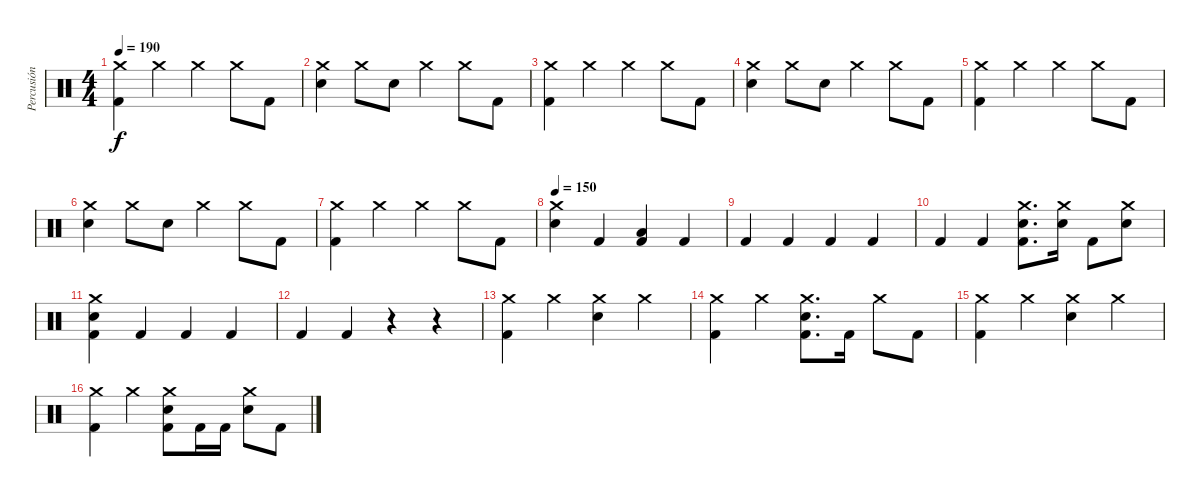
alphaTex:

\track ("Percusión" "Percusión") {instrument percussion}
\staff {score}
\articulation defaults
\ts (4 4)
\tempo 190
\clef neutral
\ks c
("Crash medium (hit)" "Kick (hit) 2").4{dy f} "Crash medium (hit)".4 "Crash medium (hit)".4 "Crash medium (hit)".8 "Kick (hit) 2".8 |
("Crash medium (hit)" "Electric Snare (hit)").4 "Crash medium (hit)".8 "Electric Snare (hit)".8 "Crash medium (hit)".4 "Crash medium (hit)".8 "Kick (hit) 2".8 |
("Crash medium (hit)" "Kick (hit) 2").4 "Crash medium (hit)".4 "Crash medium (hit)".4 "Crash medium (hit)".8 "Kick (hit) 2".8 |
("Crash medium (hit)" "Electric Snare (hit)").4 "Crash medium (hit)".8 "Electric Snare (hit)".8 "Crash medium (hit)".4 "Crash medium (hit)".8 "Kick (hit) 2".8 |
("Crash medium (hit)" "Kick (hit) 2").4 "Crash medium (hit)".4 "Crash medium (hit)".4 "Crash medium (hit)".8 "Kick (hit) 2".8 |
("Crash medium (hit)" "Electric Snare (hit)").4 "Crash medium (hit)".8 "Electric Snare (hit)".8 "Crash medium (hit)".4 "Crash medium (hit)".8 "Kick (hit) 2".8 |
("Crash medium (hit)" "Kick (hit) 2").4 "Crash medium (hit)".4 "Crash medium (hit)".4 "Crash medium (hit)".8 "Kick (hit) 2".8 |
\tempo 150
("Crash medium (hit)" "Electric Snare (hit)").4 "Kick (hit) 2".4 ("Low Floor Tom (hit)" "Kick (hit) 2").4 "Kick (hit) 2".4 |
"Kick (hit) 2".4 "Kick (hit) 2".4 "Kick (hit) 2".4 "Kick (hit) 2".4 |
"Kick (hit) 2".4 "Kick (hit) 2".4 ("Crash medium (hit)" "Electric Snare (hit)" "Kick (hit) 2").8{d} ("Crash medium (hit)" "Electric Snare (hit)").16 "Kick (hit) 2".8 ("Crash medium (hit)" "Electric Snare (hit)").8 |
("Crash medium (hit)" "Electric Snare (hit)" "Kick (hit) 2").4 "Kick (hit) 2".4 "Kick (hit) 2".4 "Kick (hit) 2".4 |
"Kick (hit) 2".4 "Kick (hit) 2".4 r.4 r.4 |
("Crash medium (hit)" "Kick (hit) 2").4 "Crash medium (hit)".4 ("Crash medium (hit)" "Electric Snare (hit)").4 "Crash medium (hit)".4 |
("Crash medium (hit)" "Kick (hit) 2").4 "Crash medium (hit)".4 ("Crash medium (hit)" "Electric Snare (hit)" "Kick (hit) 2").8{d} "Kick (hit) 2".16 "Crash medium (hit)".8 "Kick (hit) 2".8 |
("Crash medium (hit)" "Kick (hit) 2").4 "Crash medium (hit)".4 ("Crash medium (hit)" "Electric Snare (hit)").4 "Crash medium (hit)".4 |
("Crash medium (hit)" "Kick (hit) 2").4 "Crash medium (hit)".4 ("Crash medium (hit)" "Electric Snare (hit)" "Kick (hit) 2").8 "Kick (hit) 2".16 "Kick (hit) 2".16 ("Crash medium (hit)" "Electric Snare (hit)").8 "Kick (hit) 2".8
